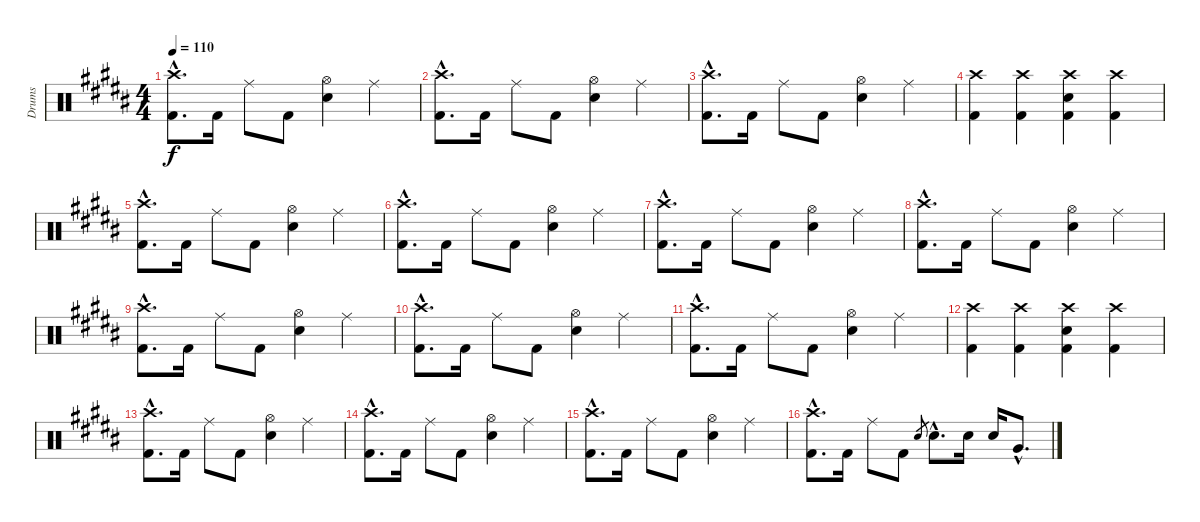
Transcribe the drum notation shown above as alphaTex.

\track ("Drums" "Drums") {instrument percussion}
\staff {score}
\articulation defaults
\ts (4 4)
\section ("" "")
\tempo 110
\clef neutral
\ks b
("Crash high (hit)"{hac} "Kick (hit) 2"{hac}).8{d dy f} "Kick (hit) 2".16 "Ride (middle)".8 "Kick (hit) 2".8 ("Hi-Hat (open)" "Electric Snare (hit)").4 "Ride (middle)".4 |
("Crash high (hit)"{hac} "Kick (hit) 2"{hac}).8{d} "Kick (hit) 2".16 "Ride (middle)".8 "Kick (hit) 2".8 ("Hi-Hat (open)" "Electric Snare (hit)").4 "Ride (middle)".4 |
("Crash high (hit)"{hac} "Kick (hit) 2"{hac}).8{d} "Kick (hit) 2".16 "Ride (middle)".8 "Kick (hit) 2".8 ("Hi-Hat (open)" "Electric Snare (hit)").4 "Ride (middle)".4 |
("Crash high (hit)" "Kick (hit) 2").4 ("Crash high (hit)" "Kick (hit) 2").4 ("Crash high (hit)" "Electric Snare (hit)" "Kick (hit) 2").4 ("Crash high (hit)" "Kick (hit) 2").4 |
("Crash high (hit)"{hac} "Kick (hit) 2"{hac}).8{d} "Kick (hit) 2".16 "Ride (middle)".8 "Kick (hit) 2".8 ("Hi-Hat (open)" "Electric Snare (hit)").4 "Ride (middle)".4 |
("Crash high (hit)"{hac} "Kick (hit) 2"{hac}).8{d} "Kick (hit) 2".16 "Ride (middle)".8 "Kick (hit) 2".8 ("Hi-Hat (open)" "Electric Snare (hit)").4 "Ride (middle)".4 |
("Crash high (hit)"{hac} "Kick (hit) 2"{hac}).8{d} "Kick (hit) 2".16 "Ride (middle)".8 "Kick (hit) 2".8 ("Hi-Hat (open)" "Electric Snare (hit)").4 "Ride (middle)".4 |
("Crash high (hit)"{hac} "Kick (hit) 2"{hac}).8{d} "Kick (hit) 2".16 "Ride (middle)".8 "Kick (hit) 2".8 ("Hi-Hat (open)" "Electric Snare (hit)").4 "Ride (middle)".4 |
("Crash high (hit)"{hac} "Kick (hit) 2"{hac}).8{d} "Kick (hit) 2".16 "Ride (middle)".8 "Kick (hit) 2".8 ("Hi-Hat (open)" "Electric Snare (hit)").4 "Ride (middle)".4 |
("Crash high (hit)"{hac} "Kick (hit) 2"{hac}).8{d} "Kick (hit) 2".16 "Ride (middle)".8 "Kick (hit) 2".8 ("Hi-Hat (open)" "Electric Snare (hit)").4 "Ride (middle)".4 |
("Crash high (hit)"{hac} "Kick (hit) 2"{hac}).8{d} "Kick (hit) 2".16 "Ride (middle)".8 "Kick (hit) 2".8 ("Hi-Hat (open)" "Electric Snare (hit)").4 "Ride (middle)".4 |
("Crash high (hit)" "Kick (hit) 2").4 ("Crash high (hit)" "Kick (hit) 2").4 ("Crash high (hit)" "Electric Snare (hit)" "Kick (hit) 2").4 ("Crash high (hit)" "Kick (hit) 2").4 |
("Crash high (hit)"{hac} "Kick (hit) 2"{hac}).8{d} "Kick (hit) 2".16 "Ride (middle)".8 "Kick (hit) 2".8 ("Hi-Hat (open)" "Electric Snare (hit)").4 "Ride (middle)".4 |
("Crash high (hit)"{hac} "Kick (hit) 2"{hac}).8{d} "Kick (hit) 2".16 "Ride (middle)".8 "Kick (hit) 2".8 ("Hi-Hat (open)" "Electric Snare (hit)").4 "Ride (middle)".4 |
("Crash high (hit)"{hac} "Kick (hit) 2"{hac}).8{d} "Kick (hit) 2".16 "Ride (middle)".8 "Kick (hit) 2".8 ("Hi-Hat (open)" "Electric Snare (hit)").4 "Ride (middle)".4 |
("Crash high (hit)"{hac} "Kick (hit) 2"{hac}).8{d} "Kick (hit) 2".16 "Ride (middle)".8 "Kick (hit) 2".8 "Electric Snare (hit)".8{gr} "Electric Snare (hit)"{hac}.8{d} "Electric Snare (hit)".16 "Electric Snare (hit)".16 "Very Low Tom (hit)"{hac}.8{d}
